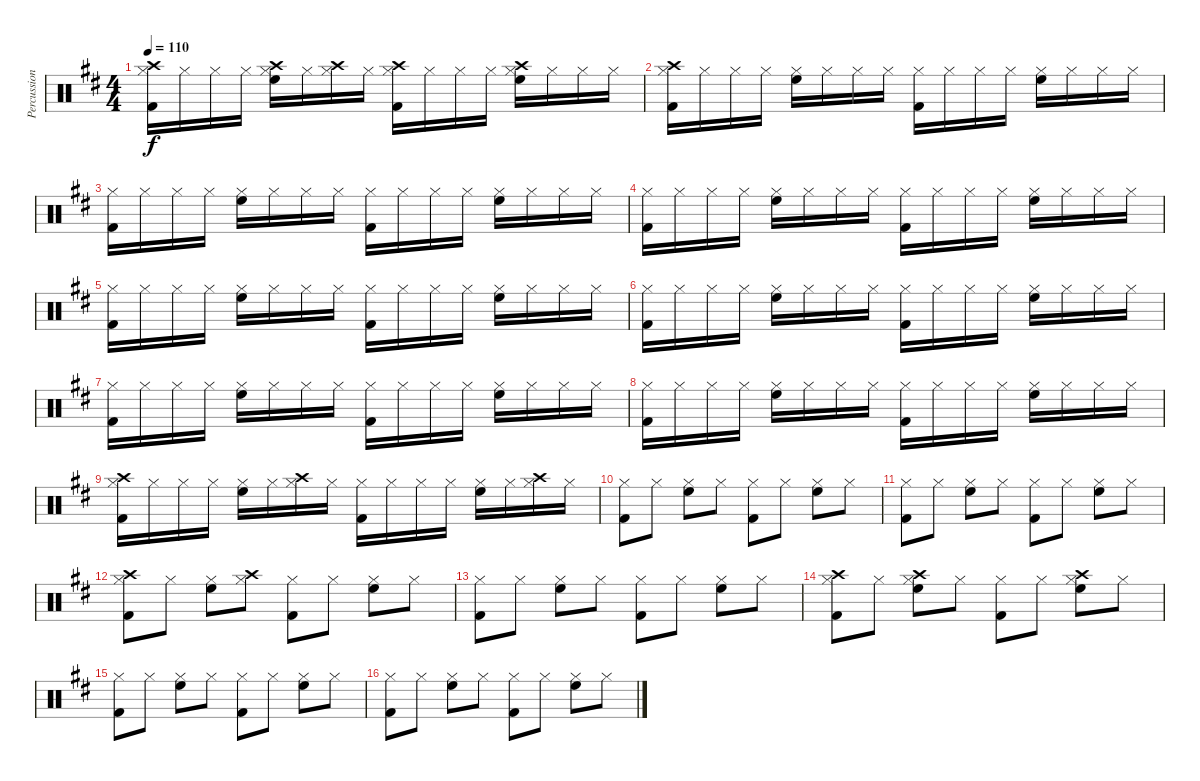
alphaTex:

\track ("Percussions" "Percussion") {instrument percussion}
\staff {score}
\articulation defaults
\ts (4 4)
\tempo 110
\clef neutral
\ks d
("Hi-Hat (closed)" "Kick (hit) 2" "Crash high (hit)").16{dy f} "Hi-Hat (closed)".16 "Hi-Hat (closed)".16 "Hi-Hat (closed)".16 ("Hi-Hat (closed)" "High Floor Tom (hit)" "Crash high (hit)").16 "Hi-Hat (closed)".16 ("Hi-Hat (closed)" "Crash high (hit)").16 "Hi-Hat (closed)".16 ("Hi-Hat (closed)" "Kick (hit) 2" "Crash high (hit)").16 "Hi-Hat (closed)".16 "Hi-Hat (closed)".16 "Hi-Hat (closed)".16 ("Hi-Hat (closed)" "High Floor Tom (hit)" "Crash high (hit)").16 "Hi-Hat (closed)".16 "Hi-Hat (closed)".16 "Hi-Hat (closed)".16 |
("Hi-Hat (closed)" "Kick (hit) 2" "Crash high (hit)").16 "Hi-Hat (closed)".16 "Hi-Hat (closed)".16 "Hi-Hat (closed)".16 ("Hi-Hat (closed)" "High Floor Tom (hit)").16 "Hi-Hat (closed)".16 "Hi-Hat (closed)".16 "Hi-Hat (closed)".16 ("Hi-Hat (closed)" "Kick (hit) 2").16 "Hi-Hat (closed)".16 "Hi-Hat (closed)".16 "Hi-Hat (closed)".16 ("Hi-Hat (closed)" "High Floor Tom (hit)").16 "Hi-Hat (closed)".16 "Hi-Hat (closed)".16 "Hi-Hat (closed)".16 |
("Hi-Hat (closed)" "Kick (hit) 2").16 "Hi-Hat (closed)".16 "Hi-Hat (closed)".16 "Hi-Hat (closed)".16 ("Hi-Hat (closed)" "High Floor Tom (hit)").16 "Hi-Hat (closed)".16 "Hi-Hat (closed)".16 "Hi-Hat (closed)".16 ("Hi-Hat (closed)" "Kick (hit) 2").16 "Hi-Hat (closed)".16 "Hi-Hat (closed)".16 "Hi-Hat (closed)".16 ("Hi-Hat (closed)" "High Floor Tom (hit)").16 "Hi-Hat (closed)".16 "Hi-Hat (closed)".16 "Hi-Hat (closed)".16 |
("Hi-Hat (closed)" "Kick (hit) 2").16 "Hi-Hat (closed)".16 "Hi-Hat (closed)".16 "Hi-Hat (closed)".16 ("Hi-Hat (closed)" "High Floor Tom (hit)").16 "Hi-Hat (closed)".16 "Hi-Hat (closed)".16 "Hi-Hat (closed)".16 ("Hi-Hat (closed)" "Kick (hit) 2").16 "Hi-Hat (closed)".16 "Hi-Hat (closed)".16 "Hi-Hat (closed)".16 ("Hi-Hat (closed)" "High Floor Tom (hit)").16 "Hi-Hat (closed)".16 "Hi-Hat (closed)".16 "Hi-Hat (closed)".16 |
("Hi-Hat (closed)" "Kick (hit) 2").16 "Hi-Hat (closed)".16 "Hi-Hat (closed)".16 "Hi-Hat (closed)".16 ("Hi-Hat (closed)" "High Floor Tom (hit)").16 "Hi-Hat (closed)".16 "Hi-Hat (closed)".16 "Hi-Hat (closed)".16 ("Hi-Hat (closed)" "Kick (hit) 2").16 "Hi-Hat (closed)".16 "Hi-Hat (closed)".16 "Hi-Hat (closed)".16 ("Hi-Hat (closed)" "High Floor Tom (hit)").16 "Hi-Hat (closed)".16 "Hi-Hat (closed)".16 "Hi-Hat (closed)".16 |
("Hi-Hat (closed)" "Kick (hit) 2").16 "Hi-Hat (closed)".16 "Hi-Hat (closed)".16 "Hi-Hat (closed)".16 ("Hi-Hat (closed)" "High Floor Tom (hit)").16 "Hi-Hat (closed)".16 "Hi-Hat (closed)".16 "Hi-Hat (closed)".16 ("Hi-Hat (closed)" "Kick (hit) 2").16 "Hi-Hat (closed)".16 "Hi-Hat (closed)".16 "Hi-Hat (closed)".16 ("Hi-Hat (closed)" "High Floor Tom (hit)").16 "Hi-Hat (closed)".16 "Hi-Hat (closed)".16 "Hi-Hat (closed)".16 |
("Hi-Hat (closed)" "Kick (hit) 2").16 "Hi-Hat (closed)".16 "Hi-Hat (closed)".16 "Hi-Hat (closed)".16 ("Hi-Hat (closed)" "High Floor Tom (hit)").16 "Hi-Hat (closed)".16 "Hi-Hat (closed)".16 "Hi-Hat (closed)".16 ("Hi-Hat (closed)" "Kick (hit) 2").16 "Hi-Hat (closed)".16 "Hi-Hat (closed)".16 "Hi-Hat (closed)".16 ("Hi-Hat (closed)" "High Floor Tom (hit)").16 "Hi-Hat (closed)".16 "Hi-Hat (closed)".16 "Hi-Hat (closed)".16 |
("Hi-Hat (closed)" "Kick (hit) 2").16 "Hi-Hat (closed)".16 "Hi-Hat (closed)".16 "Hi-Hat (closed)".16 ("Hi-Hat (closed)" "High Floor Tom (hit)").16 "Hi-Hat (closed)".16 "Hi-Hat (closed)".16 "Hi-Hat (closed)".16 ("Hi-Hat (closed)" "Kick (hit) 2").16 "Hi-Hat (closed)".16 "Hi-Hat (closed)".16 "Hi-Hat (closed)".16 ("Hi-Hat (closed)" "High Floor Tom (hit)").16 "Hi-Hat (closed)".16 "Hi-Hat (closed)".16 "Hi-Hat (closed)".16 |
("Hi-Hat (closed)" "Kick (hit) 2" "Crash high (hit)").16 "Hi-Hat (closed)".16 "Hi-Hat (closed)".16 "Hi-Hat (closed)".16 ("Hi-Hat (closed)" "High Floor Tom (hit)").16 "Hi-Hat (closed)".16 ("Hi-Hat (closed)" "Crash high (hit)").16 "Hi-Hat (closed)".16 ("Hi-Hat (closed)" "Kick (hit) 2").16 "Hi-Hat (closed)".16 "Hi-Hat (closed)".16 "Hi-Hat (closed)".16 ("Hi-Hat (closed)" "High Floor Tom (hit)").16 "Hi-Hat (closed)".16 ("Hi-Hat (closed)" "Crash high (hit)").16 "Hi-Hat (closed)".16 |
("Hi-Hat (closed)" "Kick (hit) 2").8 "Hi-Hat (closed)".8 ("Hi-Hat (closed)" "High Floor Tom (hit)").8 "Hi-Hat (closed)".8 ("Hi-Hat (closed)" "Kick (hit) 2").8 "Hi-Hat (closed)".8 ("Hi-Hat (closed)" "High Floor Tom (hit)").8 "Hi-Hat (closed)".8 |
("Hi-Hat (closed)" "Kick (hit) 2").8 "Hi-Hat (closed)".8 ("Hi-Hat (closed)" "High Floor Tom (hit)").8 "Hi-Hat (closed)".8 ("Hi-Hat (closed)" "Kick (hit) 2").8 "Hi-Hat (closed)".8 ("Hi-Hat (closed)" "High Floor Tom (hit)").8 "Hi-Hat (closed)".8 |
("Hi-Hat (closed)" "Kick (hit) 2" "Crash high (hit)").8 "Hi-Hat (closed)".8 ("Hi-Hat (closed)" "High Floor Tom (hit)").8 ("Hi-Hat (closed)" "Crash high (hit)").8 ("Hi-Hat (closed)" "Kick (hit) 2").8 "Hi-Hat (closed)".8 ("Hi-Hat (closed)" "High Floor Tom (hit)").8 "Hi-Hat (closed)".8 |
("Hi-Hat (closed)" "Kick (hit) 2").8 "Hi-Hat (closed)".8 ("Hi-Hat (closed)" "High Floor Tom (hit)").8 "Hi-Hat (closed)".8 ("Hi-Hat (closed)" "Kick (hit) 2").8 "Hi-Hat (closed)".8 ("Hi-Hat (closed)" "High Floor Tom (hit)").8 "Hi-Hat (closed)".8 |
("Hi-Hat (closed)" "Kick (hit) 2" "Crash high (hit)").8 "Hi-Hat (closed)".8 ("Hi-Hat (closed)" "High Floor Tom (hit)" "Crash high (hit)").8 "Hi-Hat (closed)".8 ("Hi-Hat (closed)" "Kick (hit) 2").8 "Hi-Hat (closed)".8 ("Hi-Hat (closed)" "High Floor Tom (hit)" "Crash high (hit)").8 "Hi-Hat (closed)".8 |
("Hi-Hat (closed)" "Kick (hit) 2").8 "Hi-Hat (closed)".8 ("Hi-Hat (closed)" "High Floor Tom (hit)").8 "Hi-Hat (closed)".8 ("Hi-Hat (closed)" "Kick (hit) 2").8 "Hi-Hat (closed)".8 ("Hi-Hat (closed)" "High Floor Tom (hit)").8 "Hi-Hat (closed)".8 |
("Hi-Hat (closed)" "Kick (hit) 2").8 "Hi-Hat (closed)".8 ("Hi-Hat (closed)" "High Floor Tom (hit)").8 "Hi-Hat (closed)".8 ("Hi-Hat (closed)" "Kick (hit) 2").8 "Hi-Hat (closed)".8 ("Hi-Hat (closed)" "High Floor Tom (hit)").8 "Hi-Hat (closed)".8
